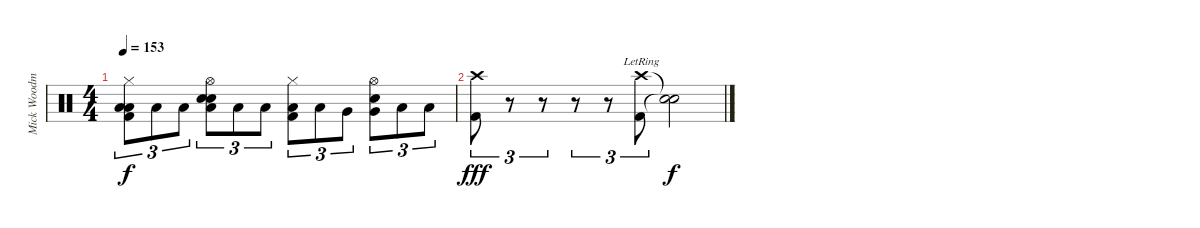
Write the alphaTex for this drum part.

\track ("Mick Woodmansey - Drums" "Mick Woodm") {instrument percussion}
\staff {score}
\articulation defaults
\ts (4 4)
\tempo 153
\clef neutral
\ks c
("Hi-Hat (closed)" "Low Floor Tom (hit)" "Low Floor Tom (hit)" "Kick (hit) 2").8{tu (3 2) dy f} "Low Floor Tom (hit)".8{tu (3 2)} "Low Floor Tom (hit)".8{tu (3 2)} ("Hi-Hat (open)" "Electric Snare (hit)" "Electric Snare (hit)" "Low Floor Tom (hit)").8{tu (3 2)} "Low Floor Tom (hit)".8{tu (3 2)} "Low Floor Tom (hit)".8{tu (3 2)} ("Hi-Hat (closed)" "Low Tom (hit)" "Kick (hit) 2").8{tu (3 2)} "Low Tom (hit)".8{tu (3 2)} "Very Low Tom (hit)".8{tu (3 2)} ("Hi-Hat (open)" "Electric Snare (hit)" "Very Low Tom (hit)").8{tu (3 2)} "Low Floor Tom (hit)".8{tu (3 2)} "Low Floor Tom (hit)".8{tu (3 2)} |
("Crash high (hit)" "Kick (hit) 2").8{tu (3 2) dy fff} r.8{tu (3 2)} r.8{tu (3 2)} r.8{tu (3 2)} r.8{tu (3 2)} ("Crash high (hit)"{lr} "Kick (hit) 2"{lr}).8{tu (3 2)} ("Snare (hit)"{t} "Snare (hit)"{t}).2{dy f}
